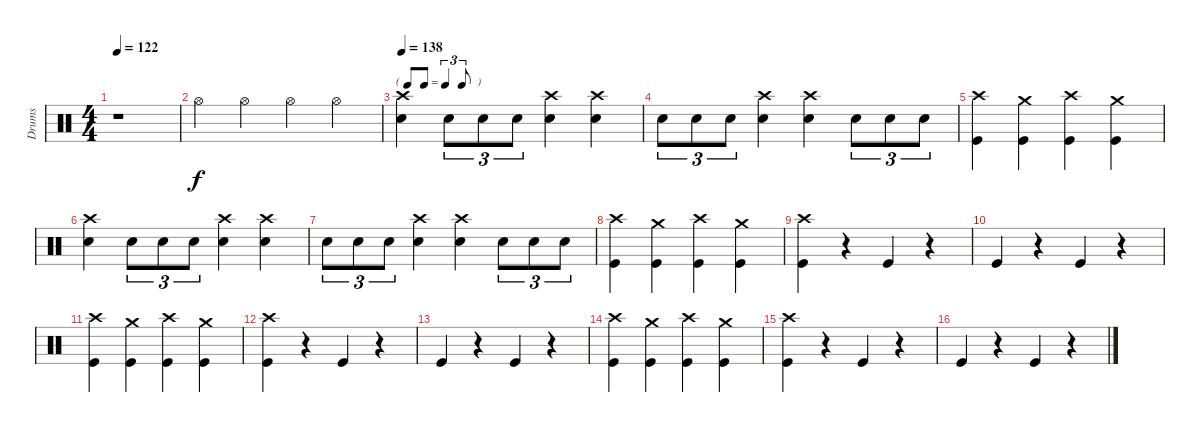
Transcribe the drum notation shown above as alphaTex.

\track ("Drums" "Drums") {instrument percussion}
\staff {score}
\articulation defaults
\ts (4 4)
\tempo 122
\clef neutral
\ks c
r.1{dy f} |
"Hi-Hat (open)".4 "Hi-Hat (open)".4 "Hi-Hat (open)".4 "Hi-Hat (open)".4 |
\tf triplet8th
\tempo 138
("Crash high (hit)" "Snare (hit) 2").4 "Snare (hit) 2".8{tu (3 2)} "Snare (hit) 2".8{tu (3 2)} "Snare (hit) 2".8{tu (3 2)} ("Crash high (hit)" "Snare (hit) 2").4 ("Crash high (hit)" "Snare (hit) 2").4 |
"Snare (hit) 2".8{tu (3 2)} "Snare (hit) 2".8{tu (3 2)} "Snare (hit) 2".8{tu (3 2)} ("Crash high (hit)" "Snare (hit) 2").4 ("Crash high (hit)" "Snare (hit) 2").4 "Snare (hit) 2".8{tu (3 2)} "Snare (hit) 2".8{tu (3 2)} "Snare (hit) 2".8{tu (3 2)} |
("Crash high (hit)" "Kick (hit)").4 ("Crash medium (hit)" "Kick (hit)").4 ("Crash high (hit)" "Kick (hit)").4 ("Crash medium (hit)" "Kick (hit)").4 |
("Crash high (hit)" "Snare (hit) 2").4 "Snare (hit) 2".8{tu (3 2)} "Snare (hit) 2".8{tu (3 2)} "Snare (hit) 2".8{tu (3 2)} ("Crash high (hit)" "Snare (hit) 2").4 ("Crash high (hit)" "Snare (hit) 2").4 |
"Snare (hit) 2".8{tu (3 2)} "Snare (hit) 2".8{tu (3 2)} "Snare (hit) 2".8{tu (3 2)} ("Crash high (hit)" "Snare (hit) 2").4 ("Crash high (hit)" "Snare (hit) 2").4 "Snare (hit) 2".8{tu (3 2)} "Snare (hit) 2".8{tu (3 2)} "Snare (hit) 2".8{tu (3 2)} |
("Crash high (hit)" "Kick (hit)").4 ("Crash medium (hit)" "Kick (hit)").4 ("Crash high (hit)" "Kick (hit)").4 ("Crash medium (hit)" "Kick (hit)").4 |
("Crash high (hit)" "Kick (hit)").4 r.4 "Kick (hit)".4 r.4 |
"Kick (hit)".4 r.4 "Kick (hit)".4 r.4 |
("Crash high (hit)" "Kick (hit)").4 ("Crash medium (hit)" "Kick (hit)").4 ("Crash high (hit)" "Kick (hit)").4 ("Crash medium (hit)" "Kick (hit)").4 |
("Crash high (hit)" "Kick (hit)").4 r.4 "Kick (hit)".4 r.4 |
"Kick (hit)".4 r.4 "Kick (hit)".4 r.4 |
("Crash high (hit)" "Kick (hit)").4 ("Crash medium (hit)" "Kick (hit)").4 ("Crash high (hit)" "Kick (hit)").4 ("Crash medium (hit)" "Kick (hit)").4 |
("Crash high (hit)" "Kick (hit)").4 r.4 "Kick (hit)".4 r.4 |
"Kick (hit)".4 r.4 "Kick (hit)".4 r.4
